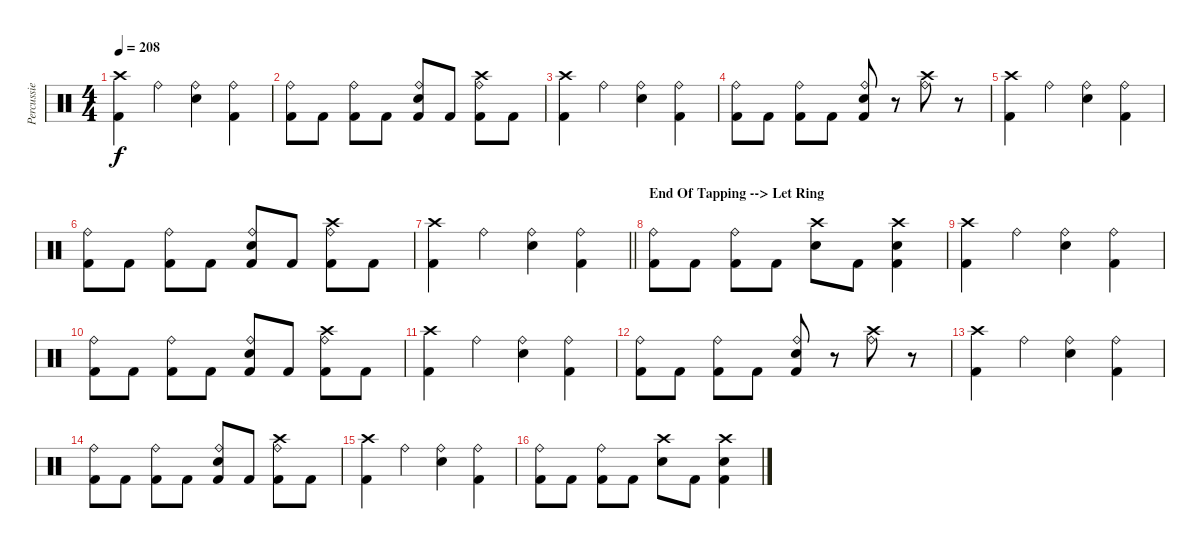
\track ("Percussie" "Percussie") {instrument percussion}
\staff {score}
\articulation defaults
\ts (4 4)
\tempo 208
\clef neutral
\ks c
("Crash high (hit)" "Kick (hit) 2").4{dy f} "Ride (bell)".4 ("Ride (bell)" "Electric Snare (hit)").4 ("Ride (bell)" "Kick (hit) 2").4 |
("Ride (bell)" "Kick (hit) 2").8 "Kick (hit) 2".8 ("Ride (bell)" "Kick (hit) 2").8 "Kick (hit) 2".8 ("Ride (bell)" "Electric Snare (hit)" "Kick (hit) 2").8 "Kick (hit) 2".8 ("Ride (bell)" "Crash high (hit)" "Kick (hit) 2").8 "Kick (hit) 2".8 |
("Crash high (hit)" "Kick (hit) 2").4 "Ride (bell)".4 ("Ride (bell)" "Electric Snare (hit)").4 ("Ride (bell)" "Kick (hit) 2").4 |
("Ride (bell)" "Kick (hit) 2").8 "Kick (hit) 2".8 ("Ride (bell)" "Kick (hit) 2").8 "Kick (hit) 2".8 ("Ride (bell)" "Electric Snare (hit)" "Kick (hit) 2").8 r.8 ("Ride (bell)" "Crash high (hit)").8 r.8 |
("Crash high (hit)" "Kick (hit) 2").4 "Ride (bell)".4 ("Ride (bell)" "Electric Snare (hit)").4 ("Ride (bell)" "Kick (hit) 2").4 |
("Ride (bell)" "Kick (hit) 2").8 "Kick (hit) 2".8 ("Ride (bell)" "Kick (hit) 2").8 "Kick (hit) 2".8 ("Ride (bell)" "Electric Snare (hit)" "Kick (hit) 2").8 "Kick (hit) 2".8 ("Ride (bell)" "Crash high (hit)" "Kick (hit) 2").8 "Kick (hit) 2".8 |
\barLineRight lightlight
("Crash high (hit)" "Kick (hit) 2").4 "Ride (bell)".4 ("Ride (bell)" "Electric Snare (hit)").4 ("Ride (bell)" "Kick (hit) 2").4 |
\section ("" "End Of Tapping --> Let Ring")
("Ride (bell)" "Kick (hit) 2").8 "Kick (hit) 2".8 ("Ride (bell)" "Kick (hit) 2").8 "Kick (hit) 2".8 ("Crash high (hit)" "Electric Snare (hit)").8 "Kick (hit) 2".8 ("Crash high (hit)" "Electric Snare (hit)" "Kick (hit) 2").4 |
("Crash high (hit)" "Kick (hit) 2").4 "Ride (bell)".4 ("Ride (bell)" "Electric Snare (hit)").4 ("Ride (bell)" "Kick (hit) 2").4 |
("Ride (bell)" "Kick (hit) 2").8 "Kick (hit) 2".8 ("Ride (bell)" "Kick (hit) 2").8 "Kick (hit) 2".8 ("Ride (bell)" "Electric Snare (hit)" "Kick (hit) 2").8 "Kick (hit) 2".8 ("Ride (bell)" "Crash high (hit)" "Kick (hit) 2").8 "Kick (hit) 2".8 |
("Crash high (hit)" "Kick (hit) 2").4 "Ride (bell)".4 ("Ride (bell)" "Electric Snare (hit)").4 ("Ride (bell)" "Kick (hit) 2").4 |
("Ride (bell)" "Kick (hit) 2").8 "Kick (hit) 2".8 ("Ride (bell)" "Kick (hit) 2").8 "Kick (hit) 2".8 ("Ride (bell)" "Electric Snare (hit)" "Kick (hit) 2").8 r.8 ("Ride (bell)" "Crash high (hit)").8 r.8 |
("Crash high (hit)" "Kick (hit) 2").4 "Ride (bell)".4 ("Ride (bell)" "Electric Snare (hit)").4 ("Ride (bell)" "Kick (hit) 2").4 |
("Ride (bell)" "Kick (hit) 2").8 "Kick (hit) 2".8 ("Ride (bell)" "Kick (hit) 2").8 "Kick (hit) 2".8 ("Ride (bell)" "Electric Snare (hit)" "Kick (hit) 2").8 "Kick (hit) 2".8 ("Ride (bell)" "Crash high (hit)" "Kick (hit) 2").8 "Kick (hit) 2".8 |
("Crash high (hit)" "Kick (hit) 2").4 "Ride (bell)".4 ("Ride (bell)" "Electric Snare (hit)").4 ("Ride (bell)" "Kick (hit) 2").4 |
("Ride (bell)" "Kick (hit) 2").8 "Kick (hit) 2".8 ("Ride (bell)" "Kick (hit) 2").8 "Kick (hit) 2".8 ("Crash high (hit)" "Electric Snare (hit)").8 "Kick (hit) 2".8 ("Crash high (hit)" "Electric Snare (hit)" "Kick (hit) 2").4
